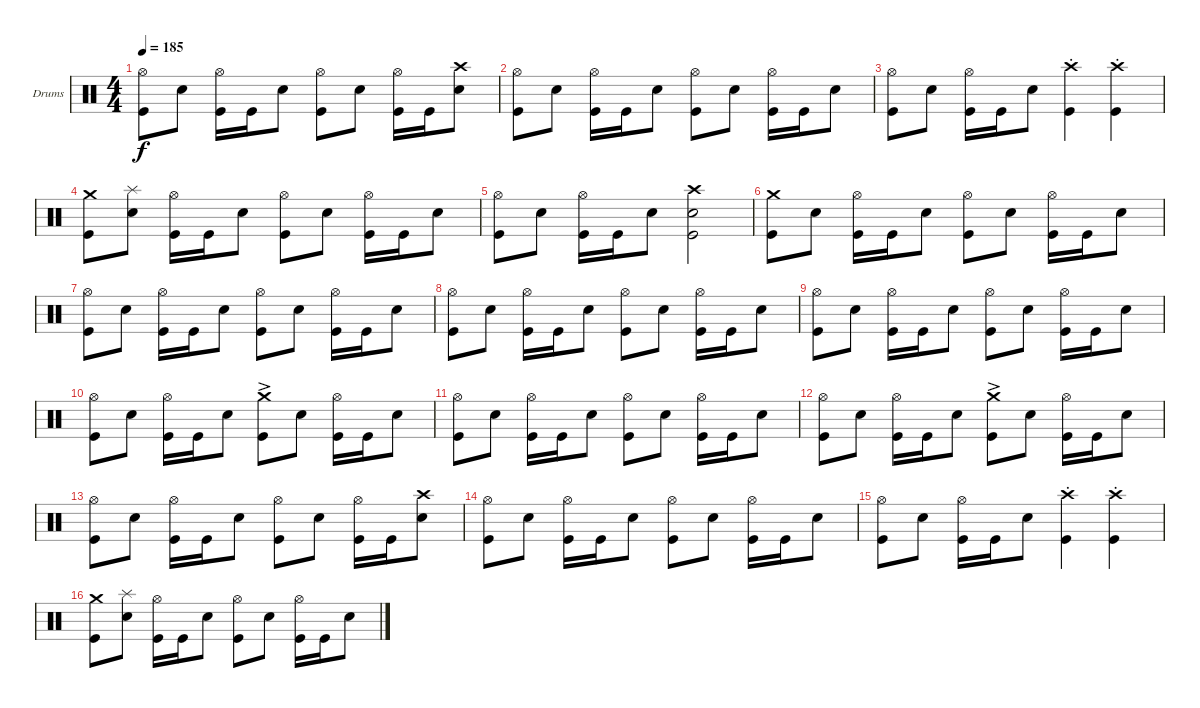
\bracketExtendMode groupsimilarinstruments
\firstSystemTrackNameOrientation horizontal
\otherSystemsTrackNameOrientation horizontal
\track ("Drumkit" "Drums") {instrument percussion}
\staff {score}
\articulation defaults
\ts (4 4)
\tempo 185
\clef neutral
\scale
0.973518
\ks c
("Kick (hit)" "Hi-Hat (open)").8{dy f} "Snare (hit) 2".8 ("Kick (hit)" "Hi-Hat (open)").16 "Kick (hit)".16 "Snare (hit) 2".8 ("Kick (hit)" "Hi-Hat (open)").8 "Snare (hit) 2".8 ("Kick (hit)" "Hi-Hat (open)").16 "Kick (hit)".16 ("Snare (hit) 2" "Crash high (hit)").8 |
\scale
0.973518 ("Kick (hit)" "Hi-Hat (open)").8 "Snare (hit) 2".8 ("Kick (hit)" "Hi-Hat (open)").16 "Kick (hit)".16 "Snare (hit) 2".8 ("Kick (hit)" "Hi-Hat (open)").8 "Snare (hit) 2".8 ("Kick (hit)" "Hi-Hat (open)").16 "Kick (hit)".16 "Snare (hit) 2".8 |
\scale
1.02648 ("Kick (hit)" "Hi-Hat (open)").8 "Snare (hit) 2".8 ("Kick (hit)" "Hi-Hat (open)").16 "Kick (hit)".16 "Snare (hit) 2".8 ("Kick (hit)" "Crash high (hit)"{st}).4 ("Kick (hit)" "Crash high (hit)"{st}).4 |
\scale
0.973518 ("Kick (hit)" "Crash medium (hit)").8 ("Snare (hit) 2" "Splash (hit)").8 ("Kick (hit)" "Hi-Hat (open)").16 "Kick (hit)".16 "Snare (hit) 2".8 ("Kick (hit)" "Hi-Hat (open)").8 "Snare (hit) 2".8 ("Kick (hit)" "Hi-Hat (open)").16 "Kick (hit)".16 "Snare (hit) 2".8 |
\scale
1.02648 ("Kick (hit)" "Hi-Hat (open)").8 "Snare (hit) 2".8 ("Kick (hit)" "Hi-Hat (open)").16 "Kick (hit)".16 "Snare (hit) 2".8 ("Kick (hit)" "Crash high (hit)" "Snare (hit) 2").2 |
\scale
0.973518 ("Kick (hit)" "Crash medium (hit)").8 "Snare (hit) 2".8 ("Kick (hit)" "Hi-Hat (open)").16 "Kick (hit)".16 "Snare (hit) 2".8 ("Kick (hit)" "Hi-Hat (open)").8 "Snare (hit) 2".8 ("Kick (hit)" "Hi-Hat (open)").16 "Kick (hit)".16 "Snare (hit) 2".8 |
\scale
1.02648 ("Kick (hit)" "Hi-Hat (open)").8 "Snare (hit) 2".8 ("Kick (hit)" "Hi-Hat (open)").16 "Kick (hit)".16 "Snare (hit) 2".8 ("Kick (hit)" "Hi-Hat (open)").8 "Snare (hit) 2".8 ("Kick (hit)" "Hi-Hat (open)").16 "Kick (hit)".16 "Snare (hit) 2".8 |
\scale
0.973518 ("Kick (hit)" "Hi-Hat (open)").8 "Snare (hit) 2".8 ("Kick (hit)" "Hi-Hat (open)").16 "Kick (hit)".16 "Snare (hit) 2".8 ("Kick (hit)" "Hi-Hat (open)").8 "Snare (hit) 2".8 ("Kick (hit)" "Hi-Hat (open)").16 "Kick (hit)".16 "Snare (hit) 2".8 |
\scale
1.02648 ("Kick (hit)" "Hi-Hat (open)").8 "Snare (hit) 2".8 ("Kick (hit)" "Hi-Hat (open)").16 "Kick (hit)".16 "Snare (hit) 2".8 ("Kick (hit)" "Hi-Hat (open)").8 "Snare (hit) 2".8 ("Kick (hit)" "Hi-Hat (open)").16 "Kick (hit)".16 "Snare (hit) 2".8 |
\scale
0.973518 ("Kick (hit)" "Hi-Hat (open)").8 "Snare (hit) 2".8 ("Kick (hit)" "Hi-Hat (open)").16 "Kick (hit)".16 "Snare (hit) 2".8 ("Kick (hit)" "Crash medium (hit)"{ac}).8 "Snare (hit) 2".8 ("Kick (hit)" "Hi-Hat (open)").16 "Kick (hit)".16 "Snare (hit) 2".8 |
\scale
1.02648 ("Kick (hit)" "Hi-Hat (open)").8 "Snare (hit) 2".8 ("Kick (hit)" "Hi-Hat (open)").16 "Kick (hit)".16 "Snare (hit) 2".8 ("Kick (hit)" "Hi-Hat (open)").8 "Snare (hit) 2".8 ("Kick (hit)" "Hi-Hat (open)").16 "Kick (hit)".16 "Snare (hit) 2".8 |
\scale
0.973518 ("Kick (hit)" "Hi-Hat (open)").8 "Snare (hit) 2".8 ("Kick (hit)" "Hi-Hat (open)").16 "Kick (hit)".16 "Snare (hit) 2".8 ("Kick (hit)" "Crash medium (hit)"{ac}).8 "Snare (hit) 2".8 ("Kick (hit)" "Hi-Hat (open)").16 "Kick (hit)".16 "Snare (hit) 2".8 |
\scale
1.02648 ("Kick (hit)" "Hi-Hat (open)").8 "Snare (hit) 2".8 ("Kick (hit)" "Hi-Hat (open)").16 "Kick (hit)".16 "Snare (hit) 2".8 ("Kick (hit)" "Hi-Hat (open)").8 "Snare (hit) 2".8 ("Kick (hit)" "Hi-Hat (open)").16 "Kick (hit)".16 ("Snare (hit) 2" "Crash high (hit)").8 |
\scale
0.973518 ("Kick (hit)" "Hi-Hat (open)").8 "Snare (hit) 2".8 ("Kick (hit)" "Hi-Hat (open)").16 "Kick (hit)".16 "Snare (hit) 2".8 ("Kick (hit)" "Hi-Hat (open)").8 "Snare (hit) 2".8 ("Kick (hit)" "Hi-Hat (open)").16 "Kick (hit)".16 "Snare (hit) 2".8 |
\scale
1.02648 ("Kick (hit)" "Hi-Hat (open)").8 "Snare (hit) 2".8 ("Kick (hit)" "Hi-Hat (open)").16 "Kick (hit)".16 "Snare (hit) 2".8 ("Kick (hit)" "Crash high (hit)"{st}).4 ("Kick (hit)" "Crash high (hit)"{st}).4 |
\scale
0.973518 ("Kick (hit)" "Crash medium (hit)").8 ("Snare (hit) 2" "Splash (hit)").8 ("Kick (hit)" "Hi-Hat (open)").16 "Kick (hit)".16 "Snare (hit) 2".8 ("Kick (hit)" "Hi-Hat (open)").8 "Snare (hit) 2".8 ("Kick (hit)" "Hi-Hat (open)").16 "Kick (hit)".16 "Snare (hit) 2".8
